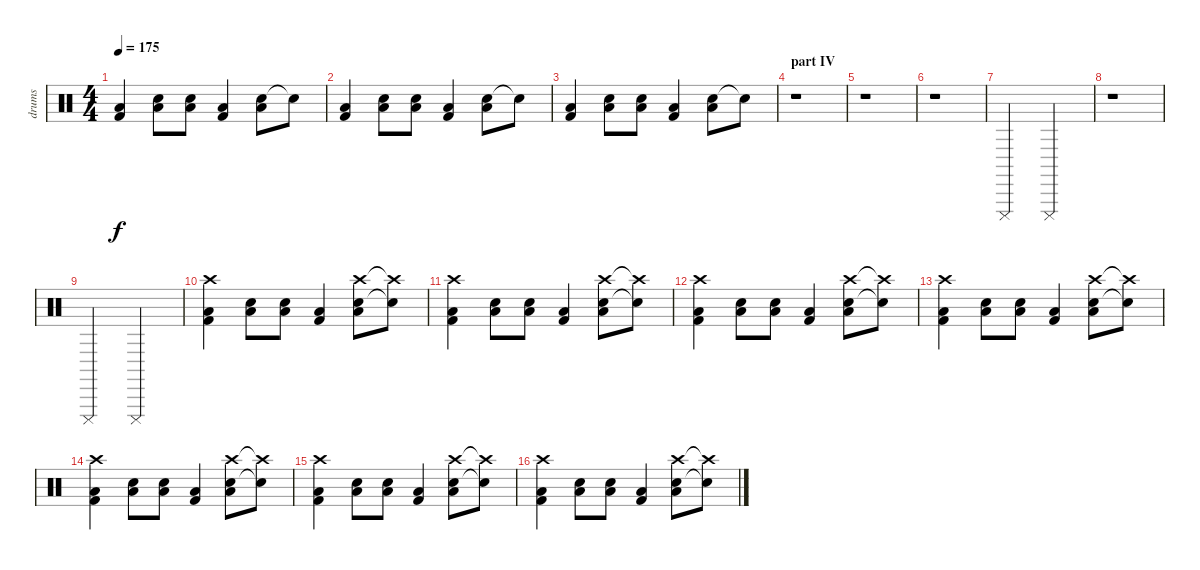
\track ("drums" "drums") {instrument percussion}
\staff {score}
\articulation defaults
\ts (4 4)
\tempo 175
\clef neutral
\ks c
("Kick (hit) 2" "Low Floor Tom (hit)").4{dy f} ("Snare (hit) 2" "Low Floor Tom (hit)").8 ("Snare (hit) 2" "Low Floor Tom (hit)").8 ("Kick (hit) 2" "Low Floor Tom (hit)").4 ("Snare (hit) 2" "Low Floor Tom (hit)").8 "Snare (hit)"{t}.8 |
("Kick (hit) 2" "Low Floor Tom (hit)").4 ("Snare (hit) 2" "Low Floor Tom (hit)").8 ("Snare (hit) 2" "Low Floor Tom (hit)").8 ("Kick (hit) 2" "Low Floor Tom (hit)").4 ("Snare (hit) 2" "Low Floor Tom (hit)").8 "Snare (hit)"{t}.8 |
("Kick (hit) 2" "Low Floor Tom (hit)").4 ("Snare (hit) 2" "Low Floor Tom (hit)").8 ("Snare (hit) 2" "Low Floor Tom (hit)").8 ("Kick (hit) 2" "Low Floor Tom (hit)").4 ("Snare (hit) 2" "Low Floor Tom (hit)").8 "Snare (hit)"{t}.8 |
\section ("" "part IV")
r.1 |
r.1 |
r.1 |
"Cuica (mute)".2 "Cuica (mute)".2 |
r.1 |
"Cuica (mute)".2 "Cuica (mute)".2 |
("Crash high (hit)" "Kick (hit) 2" "Low Floor Tom (hit)").4 ("Snare (hit) 2" "Low Floor Tom (hit)").8 ("Snare (hit) 2" "Low Floor Tom (hit)").8 ("Kick (hit) 2" "Low Floor Tom (hit)").4 ("Crash high (hit)" "Snare (hit) 2" "Low Floor Tom (hit)").8 ("Crash high (hit)"{t} "Snare (hit)"{t}).8 |
("Crash high (hit)" "Kick (hit) 2" "Low Floor Tom (hit)").4 ("Snare (hit) 2" "Low Floor Tom (hit)").8 ("Snare (hit) 2" "Low Floor Tom (hit)").8 ("Kick (hit) 2" "Low Floor Tom (hit)").4 ("Crash high (hit)" "Snare (hit) 2" "Low Floor Tom (hit)").8 ("Crash high (hit)"{t} "Snare (hit)"{t}).8 |
("Crash high (hit)" "Kick (hit) 2" "Low Floor Tom (hit)").4 ("Snare (hit) 2" "Low Floor Tom (hit)").8 ("Snare (hit) 2" "Low Floor Tom (hit)").8 ("Kick (hit) 2" "Low Floor Tom (hit)").4 ("Crash high (hit)" "Snare (hit) 2" "Low Floor Tom (hit)").8 ("Crash high (hit)"{t} "Snare (hit)"{t}).8 |
("Crash high (hit)" "Kick (hit) 2" "Low Floor Tom (hit)").4 ("Snare (hit) 2" "Low Floor Tom (hit)").8 ("Snare (hit) 2" "Low Floor Tom (hit)").8 ("Kick (hit) 2" "Low Floor Tom (hit)").4 ("Crash high (hit)" "Snare (hit) 2" "Low Floor Tom (hit)").8 ("Crash high (hit)"{t} "Snare (hit)"{t}).8 |
("Crash high (hit)" "Kick (hit) 2" "Low Floor Tom (hit)").4 ("Snare (hit) 2" "Low Floor Tom (hit)").8 ("Snare (hit) 2" "Low Floor Tom (hit)").8 ("Kick (hit) 2" "Low Floor Tom (hit)").4 ("Crash high (hit)" "Snare (hit) 2" "Low Floor Tom (hit)").8 ("Crash high (hit)"{t} "Snare (hit)"{t}).8 |
("Crash high (hit)" "Kick (hit) 2" "Low Floor Tom (hit)").4 ("Snare (hit) 2" "Low Floor Tom (hit)").8 ("Snare (hit) 2" "Low Floor Tom (hit)").8 ("Kick (hit) 2" "Low Floor Tom (hit)").4 ("Crash high (hit)" "Snare (hit) 2" "Low Floor Tom (hit)").8 ("Crash high (hit)"{t} "Snare (hit)"{t}).8 |
("Crash high (hit)" "Kick (hit) 2" "Low Floor Tom (hit)").4 ("Snare (hit) 2" "Low Floor Tom (hit)").8 ("Snare (hit) 2" "Low Floor Tom (hit)").8 ("Kick (hit) 2" "Low Floor Tom (hit)").4 ("Crash high (hit)" "Snare (hit) 2" "Low Floor Tom (hit)").8 ("Crash high (hit)"{t} "Snare (hit)"{t}).8
